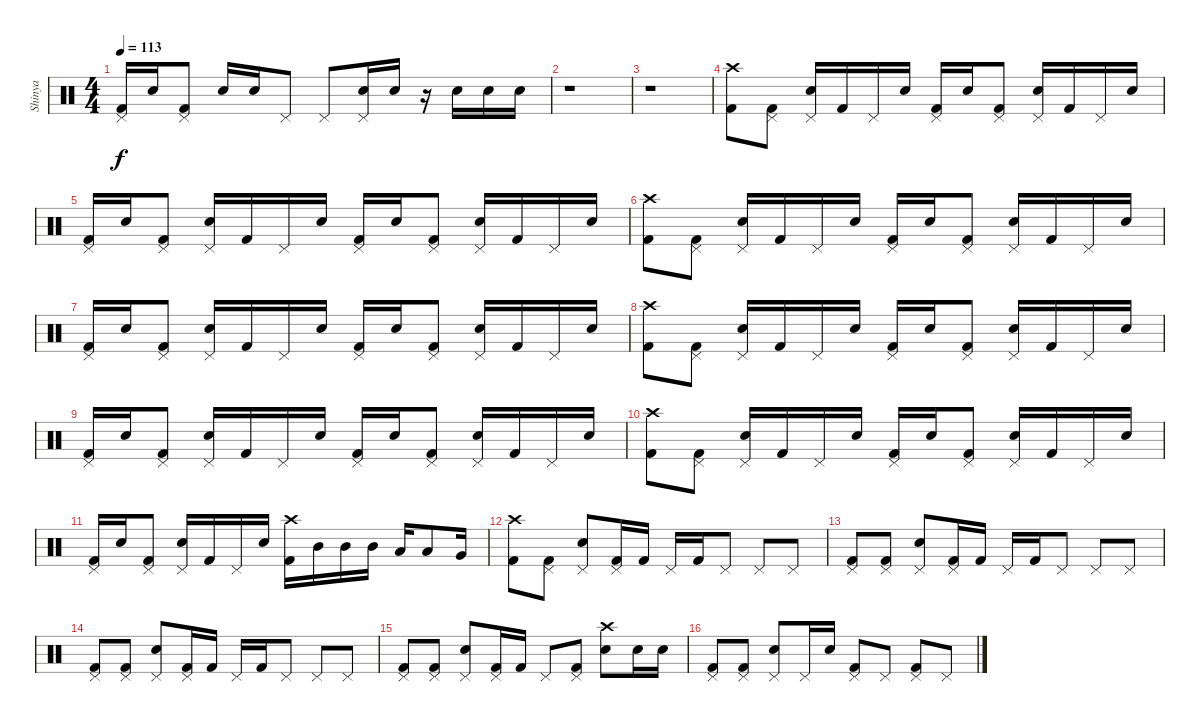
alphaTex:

\track ("Shinya" "Shinya") {instrument percussion}
\staff {score}
\articulation defaults
\ts (4 4)
\tempo 113
\clef neutral
\ks c
("Pedal Hi-Hat (hit)" "Kick (hit) 2").16{dy f} "Electric Snare (hit)".16 ("Pedal Hi-Hat (hit)" "Kick (hit) 2").8 "Electric Snare (hit)".16 "Electric Snare (hit)".16 "Pedal Hi-Hat (hit)".8 "Pedal Hi-Hat (hit)".8 ("Pedal Hi-Hat (hit)" "Electric Snare (hit)").16 "Electric Snare (hit)".16 r.16 "Electric Snare (hit)".16 "Electric Snare (hit)".16 "Electric Snare (hit)".16 |
r.1 |
r.1 |
("Crash high (hit)" "Kick (hit) 2").8 ("Pedal Hi-Hat (hit)" "Kick (hit) 2").8 ("Pedal Hi-Hat (hit)" "Electric Snare (hit)").16 "Kick (hit) 2".16 "Pedal Hi-Hat (hit)".16 "Electric Snare (hit)".16 ("Pedal Hi-Hat (hit)" "Kick (hit) 2").16 "Electric Snare (hit)".16 ("Pedal Hi-Hat (hit)" "Kick (hit) 2").8 ("Pedal Hi-Hat (hit)" "Electric Snare (hit)").16 "Kick (hit) 2".16 "Pedal Hi-Hat (hit)".16 "Electric Snare (hit)".16 |
("Pedal Hi-Hat (hit)" "Kick (hit) 2").16 "Electric Snare (hit)".16 ("Pedal Hi-Hat (hit)" "Kick (hit) 2").8 ("Pedal Hi-Hat (hit)" "Electric Snare (hit)").16 "Kick (hit) 2".16 "Pedal Hi-Hat (hit)".16 "Electric Snare (hit)".16 ("Pedal Hi-Hat (hit)" "Kick (hit) 2").16 "Electric Snare (hit)".16 ("Pedal Hi-Hat (hit)" "Kick (hit) 2").8 ("Pedal Hi-Hat (hit)" "Electric Snare (hit)").16 "Kick (hit) 2".16 "Pedal Hi-Hat (hit)".16 "Electric Snare (hit)".16 |
("Crash high (hit)" "Kick (hit) 2").8 ("Pedal Hi-Hat (hit)" "Kick (hit) 2").8 ("Pedal Hi-Hat (hit)" "Electric Snare (hit)").16 "Kick (hit) 2".16 "Pedal Hi-Hat (hit)".16 "Electric Snare (hit)".16 ("Pedal Hi-Hat (hit)" "Kick (hit) 2").16 "Electric Snare (hit)".16 ("Pedal Hi-Hat (hit)" "Kick (hit) 2").8 ("Pedal Hi-Hat (hit)" "Electric Snare (hit)").16 "Kick (hit) 2".16 "Pedal Hi-Hat (hit)".16 "Electric Snare (hit)".16 |
("Pedal Hi-Hat (hit)" "Kick (hit) 2").16 "Electric Snare (hit)".16 ("Pedal Hi-Hat (hit)" "Kick (hit) 2").8 ("Pedal Hi-Hat (hit)" "Electric Snare (hit)").16 "Kick (hit) 2".16 "Pedal Hi-Hat (hit)".16 "Electric Snare (hit)".16 ("Pedal Hi-Hat (hit)" "Kick (hit) 2").16 "Electric Snare (hit)".16 ("Pedal Hi-Hat (hit)" "Kick (hit) 2").8 ("Pedal Hi-Hat (hit)" "Electric Snare (hit)").16 "Kick (hit) 2".16 "Pedal Hi-Hat (hit)".16 "Electric Snare (hit)".16 |
("Crash high (hit)" "Kick (hit) 2").8 ("Pedal Hi-Hat (hit)" "Kick (hit) 2").8 ("Pedal Hi-Hat (hit)" "Electric Snare (hit)").16 "Kick (hit) 2".16 "Pedal Hi-Hat (hit)".16 "Electric Snare (hit)".16 ("Pedal Hi-Hat (hit)" "Kick (hit) 2").16 "Electric Snare (hit)".16 ("Pedal Hi-Hat (hit)" "Kick (hit) 2").8 ("Pedal Hi-Hat (hit)" "Electric Snare (hit)").16 "Kick (hit) 2".16 "Pedal Hi-Hat (hit)".16 "Electric Snare (hit)".16 |
("Pedal Hi-Hat (hit)" "Kick (hit) 2").16 "Electric Snare (hit)".16 ("Pedal Hi-Hat (hit)" "Kick (hit) 2").8 ("Pedal Hi-Hat (hit)" "Electric Snare (hit)").16 "Kick (hit) 2".16 "Pedal Hi-Hat (hit)".16 "Electric Snare (hit)".16 ("Pedal Hi-Hat (hit)" "Kick (hit) 2").16 "Electric Snare (hit)".16 ("Pedal Hi-Hat (hit)" "Kick (hit) 2").8 ("Pedal Hi-Hat (hit)" "Electric Snare (hit)").16 "Kick (hit) 2".16 "Pedal Hi-Hat (hit)".16 "Electric Snare (hit)".16 |
("Crash high (hit)" "Kick (hit) 2").8 ("Pedal Hi-Hat (hit)" "Kick (hit) 2").8 ("Pedal Hi-Hat (hit)" "Electric Snare (hit)").16 "Kick (hit) 2".16 "Pedal Hi-Hat (hit)".16 "Electric Snare (hit)".16 ("Pedal Hi-Hat (hit)" "Kick (hit) 2").16 "Electric Snare (hit)".16 ("Pedal Hi-Hat (hit)" "Kick (hit) 2").8 ("Pedal Hi-Hat (hit)" "Electric Snare (hit)").16 "Kick (hit) 2".16 "Pedal Hi-Hat (hit)".16 "Electric Snare (hit)".16 |
("Pedal Hi-Hat (hit)" "Kick (hit) 2").16 "Electric Snare (hit)".16 ("Pedal Hi-Hat (hit)" "Kick (hit) 2").8 ("Pedal Hi-Hat (hit)" "Electric Snare (hit)").16 "Kick (hit) 2".16 "Pedal Hi-Hat (hit)".16 "Electric Snare (hit)".16 ("Crash high (hit)" "Kick (hit) 2").16 "Mid Tom (hit)".16 "Mid Tom (hit)".16 "Mid Tom (hit)".16 "Low Tom (hit)".16 "Low Tom (hit)".8 "Very Low Tom (hit)".16 |
("Crash high (hit)" "Kick (hit) 2").8 ("Pedal Hi-Hat (hit)" "Kick (hit) 2").8 ("Pedal Hi-Hat (hit)" "Electric Snare (hit)").8 ("Pedal Hi-Hat (hit)" "Kick (hit) 2").16 "Kick (hit) 2".16 "Pedal Hi-Hat (hit)".16 "Kick (hit) 2".16 "Pedal Hi-Hat (hit)".8 "Pedal Hi-Hat (hit)".8 "Pedal Hi-Hat (hit)".8 |
("Pedal Hi-Hat (hit)" "Kick (hit) 2").8 ("Pedal Hi-Hat (hit)" "Kick (hit) 2").8 ("Pedal Hi-Hat (hit)" "Electric Snare (hit)").8 ("Pedal Hi-Hat (hit)" "Kick (hit) 2").16 "Kick (hit) 2".16 "Pedal Hi-Hat (hit)".16 "Kick (hit) 2".16 "Pedal Hi-Hat (hit)".8 "Pedal Hi-Hat (hit)".8 "Pedal Hi-Hat (hit)".8 |
("Pedal Hi-Hat (hit)" "Kick (hit) 2").8 ("Pedal Hi-Hat (hit)" "Kick (hit) 2").8 ("Pedal Hi-Hat (hit)" "Electric Snare (hit)").8 ("Pedal Hi-Hat (hit)" "Kick (hit) 2").16 "Kick (hit) 2".16 "Pedal Hi-Hat (hit)".16 "Kick (hit) 2".16 "Pedal Hi-Hat (hit)".8 "Pedal Hi-Hat (hit)".8 "Pedal Hi-Hat (hit)".8 |
("Pedal Hi-Hat (hit)" "Kick (hit) 2").8 ("Pedal Hi-Hat (hit)" "Kick (hit) 2").8 ("Pedal Hi-Hat (hit)" "Electric Snare (hit)").8 ("Pedal Hi-Hat (hit)" "Kick (hit) 2").16 "Kick (hit) 2".16 "Pedal Hi-Hat (hit)".8 ("Pedal Hi-Hat (hit)" "Kick (hit) 2").8 ("Crash high (hit)" "Electric Snare (hit)").8 "Electric Snare (hit)".16 "Electric Snare (hit)".16 |
("Pedal Hi-Hat (hit)" "Kick (hit) 2").8 ("Pedal Hi-Hat (hit)" "Kick (hit) 2").8 ("Pedal Hi-Hat (hit)" "Electric Snare (hit)").8 "Pedal Hi-Hat (hit)".16 "Electric Snare (hit)".16 ("Pedal Hi-Hat (hit)" "Kick (hit) 2").8 "Pedal Hi-Hat (hit)".8 ("Pedal Hi-Hat (hit)" "Kick (hit) 2").8 "Pedal Hi-Hat (hit)".8
